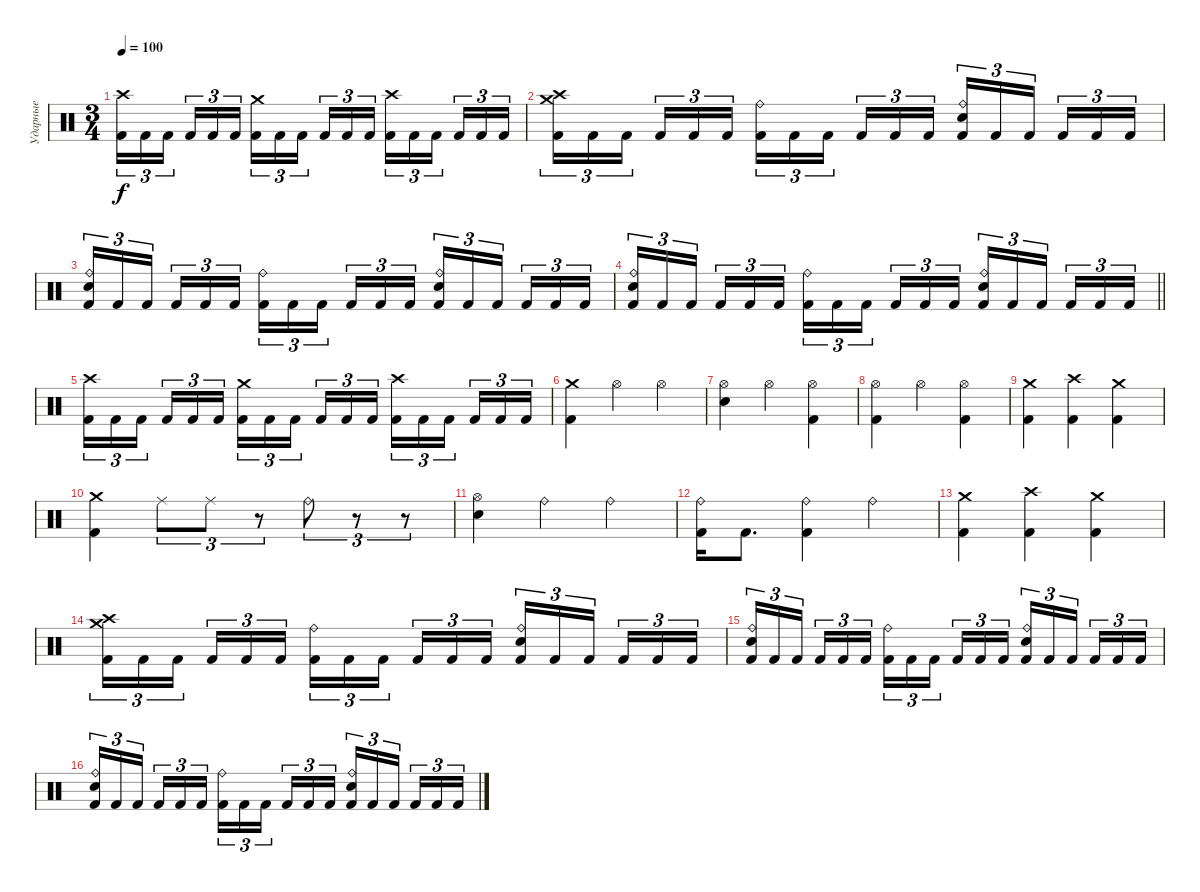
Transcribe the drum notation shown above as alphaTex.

\track ("Ударные" "Ударные") {instrument percussion}
\staff {score}
\articulation defaults
\ts (3 4)
\tempo 100
\clef neutral
\ks c
("Crash high (hit)" "Kick (hit) 2").16{tu (3 2) dy f} "Kick (hit) 2".16{tu (3 2)} "Kick (hit) 2".16{tu (3 2) beam splitsecondary} "Kick (hit) 2".16{tu (3 2)} "Kick (hit) 2".16{tu (3 2)} "Kick (hit) 2".16{tu (3 2)} ("Crash medium (hit)" "Kick (hit) 2").16{tu (3 2)} "Kick (hit) 2".16{tu (3 2)} "Kick (hit) 2".16{tu (3 2) beam splitsecondary} "Kick (hit) 2".16{tu (3 2)} "Kick (hit) 2".16{tu (3 2)} "Kick (hit) 2".16{tu (3 2)} ("Crash high (hit)" "Kick (hit) 2").16{tu (3 2)} "Kick (hit) 2".16{tu (3 2)} "Kick (hit) 2".16{tu (3 2) beam splitsecondary} "Kick (hit) 2".16{tu (3 2)} "Kick (hit) 2".16{tu (3 2)} "Kick (hit) 2".16{tu (3 2)} |
("Crash high (hit)" "Crash medium (hit)" "Kick (hit) 2").16{tu (3 2)} "Kick (hit) 2".16{tu (3 2)} "Kick (hit) 2".16{tu (3 2) beam splitsecondary} "Kick (hit) 2".16{tu (3 2)} "Kick (hit) 2".16{tu (3 2)} "Kick (hit) 2".16{tu (3 2)} ("Ride (bell)" "Kick (hit) 2").16{tu (3 2)} "Kick (hit) 2".16{tu (3 2)} "Kick (hit) 2".16{tu (3 2) beam splitsecondary} "Kick (hit) 2".16{tu (3 2)} "Kick (hit) 2".16{tu (3 2)} "Kick (hit) 2".16{tu (3 2)} ("Ride (bell)" "Electric Snare (hit)" "Kick (hit) 2").16{tu (3 2)} "Kick (hit) 2".16{tu (3 2)} "Kick (hit) 2".16{tu (3 2) beam splitsecondary} "Kick (hit) 2".16{tu (3 2)} "Kick (hit) 2".16{tu (3 2)} "Kick (hit) 2".16{tu (3 2)} |
("Ride (bell)" "Electric Snare (hit)" "Kick (hit) 2").16{tu (3 2)} "Kick (hit) 2".16{tu (3 2)} "Kick (hit) 2".16{tu (3 2) beam splitsecondary} "Kick (hit) 2".16{tu (3 2)} "Kick (hit) 2".16{tu (3 2)} "Kick (hit) 2".16{tu (3 2)} ("Ride (bell)" "Kick (hit) 2").16{tu (3 2)} "Kick (hit) 2".16{tu (3 2)} "Kick (hit) 2".16{tu (3 2) beam splitsecondary} "Kick (hit) 2".16{tu (3 2)} "Kick (hit) 2".16{tu (3 2)} "Kick (hit) 2".16{tu (3 2)} ("Ride (bell)" "Electric Snare (hit)" "Kick (hit) 2").16{tu (3 2)} "Kick (hit) 2".16{tu (3 2)} "Kick (hit) 2".16{tu (3 2) beam splitsecondary} "Kick (hit) 2".16{tu (3 2)} "Kick (hit) 2".16{tu (3 2)} "Kick (hit) 2".16{tu (3 2)} |
\barLineRight lightlight
("Ride (bell)" "Electric Snare (hit)" "Kick (hit) 2").16{tu (3 2)} "Kick (hit) 2".16{tu (3 2)} "Kick (hit) 2".16{tu (3 2) beam splitsecondary} "Kick (hit) 2".16{tu (3 2)} "Kick (hit) 2".16{tu (3 2)} "Kick (hit) 2".16{tu (3 2)} ("Ride (bell)" "Kick (hit) 2").16{tu (3 2)} "Kick (hit) 2".16{tu (3 2)} "Kick (hit) 2".16{tu (3 2) beam splitsecondary} "Kick (hit) 2".16{tu (3 2)} "Kick (hit) 2".16{tu (3 2)} "Kick (hit) 2".16{tu (3 2)} ("Ride (bell)" "Electric Snare (hit)" "Kick (hit) 2").16{tu (3 2)} "Kick (hit) 2".16{tu (3 2)} "Kick (hit) 2".16{tu (3 2) beam splitsecondary} "Kick (hit) 2".16{tu (3 2)} "Kick (hit) 2".16{tu (3 2)} "Kick (hit) 2".16{tu (3 2)} |
("Crash high (hit)" "Kick (hit) 2").16{tu (3 2)} "Kick (hit) 2".16{tu (3 2)} "Kick (hit) 2".16{tu (3 2) beam splitsecondary} "Kick (hit) 2".16{tu (3 2)} "Kick (hit) 2".16{tu (3 2)} "Kick (hit) 2".16{tu (3 2)} ("Crash medium (hit)" "Kick (hit) 2").16{tu (3 2)} "Kick (hit) 2".16{tu (3 2)} "Kick (hit) 2".16{tu (3 2) beam splitsecondary} "Kick (hit) 2".16{tu (3 2)} "Kick (hit) 2".16{tu (3 2)} "Kick (hit) 2".16{tu (3 2)} ("Crash high (hit)" "Kick (hit) 2").16{tu (3 2)} "Kick (hit) 2".16{tu (3 2)} "Kick (hit) 2".16{tu (3 2) beam splitsecondary} "Kick (hit) 2".16{tu (3 2)} "Kick (hit) 2".16{tu (3 2)} "Kick (hit) 2".16{tu (3 2)} |
("Crash medium (hit)" "Kick (hit) 2").4 "Hi-Hat (open)".4 "Hi-Hat (open)".4 |
("Hi-Hat (open)" "Electric Snare (hit)").4 "Hi-Hat (open)".4 ("Hi-Hat (open)" "Kick (hit) 2").4 |
("Hi-Hat (open)" "Kick (hit) 2").4 "Hi-Hat (open)".4 ("Hi-Hat (open)" "Kick (hit) 2").4 |
("Crash medium (hit)" "Kick (hit) 2").4 ("Crash high (hit)" "Kick (hit) 2").4 ("Crash medium (hit)" "Kick (hit) 2").4 |
("Crash medium (hit)" "Kick (hit) 2").4 "Ride (middle)".8{tu (3 2)} "Ride (middle)".8{tu (3 2)} r.8{tu (3 2)} "Ride (bell)".8{tu (3 2)} r.8{tu (3 2)} r.8{tu (3 2)} |
("Hi-Hat (open)" "Electric Snare (hit)").4 "Ride (bell)".4 "Ride (bell)".4 |
("Ride (bell)" "Kick (hit) 2").16 "Kick (hit) 2".8{d} ("Ride (bell)" "Kick (hit) 2").4 "Ride (bell)".4 |
("Crash medium (hit)" "Kick (hit) 2").4 ("Crash high (hit)" "Kick (hit) 2").4 ("Crash medium (hit)" "Kick (hit) 2").4 |
("Crash high (hit)" "Crash medium (hit)" "Kick (hit) 2").16{tu (3 2)} "Kick (hit) 2".16{tu (3 2)} "Kick (hit) 2".16{tu (3 2) beam splitsecondary} "Kick (hit) 2".16{tu (3 2)} "Kick (hit) 2".16{tu (3 2)} "Kick (hit) 2".16{tu (3 2)} ("Ride (bell)" "Kick (hit) 2").16{tu (3 2)} "Kick (hit) 2".16{tu (3 2)} "Kick (hit) 2".16{tu (3 2) beam splitsecondary} "Kick (hit) 2".16{tu (3 2)} "Kick (hit) 2".16{tu (3 2)} "Kick (hit) 2".16{tu (3 2)} ("Ride (bell)" "Electric Snare (hit)" "Kick (hit) 2").16{tu (3 2)} "Kick (hit) 2".16{tu (3 2)} "Kick (hit) 2".16{tu (3 2) beam splitsecondary} "Kick (hit) 2".16{tu (3 2)} "Kick (hit) 2".16{tu (3 2)} "Kick (hit) 2".16{tu (3 2)} |
("Ride (bell)" "Electric Snare (hit)" "Kick (hit) 2").16{tu (3 2)} "Kick (hit) 2".16{tu (3 2)} "Kick (hit) 2".16{tu (3 2) beam splitsecondary} "Kick (hit) 2".16{tu (3 2)} "Kick (hit) 2".16{tu (3 2)} "Kick (hit) 2".16{tu (3 2)} ("Ride (bell)" "Kick (hit) 2").16{tu (3 2)} "Kick (hit) 2".16{tu (3 2)} "Kick (hit) 2".16{tu (3 2) beam splitsecondary} "Kick (hit) 2".16{tu (3 2)} "Kick (hit) 2".16{tu (3 2)} "Kick (hit) 2".16{tu (3 2)} ("Ride (bell)" "Electric Snare (hit)" "Kick (hit) 2").16{tu (3 2)} "Kick (hit) 2".16{tu (3 2)} "Kick (hit) 2".16{tu (3 2) beam splitsecondary} "Kick (hit) 2".16{tu (3 2)} "Kick (hit) 2".16{tu (3 2)} "Kick (hit) 2".16{tu (3 2)} |
("Ride (bell)" "Electric Snare (hit)" "Kick (hit) 2").16{tu (3 2)} "Kick (hit) 2".16{tu (3 2)} "Kick (hit) 2".16{tu (3 2) beam splitsecondary} "Kick (hit) 2".16{tu (3 2)} "Kick (hit) 2".16{tu (3 2)} "Kick (hit) 2".16{tu (3 2)} ("Ride (bell)" "Kick (hit) 2").16{tu (3 2)} "Kick (hit) 2".16{tu (3 2)} "Kick (hit) 2".16{tu (3 2) beam splitsecondary} "Kick (hit) 2".16{tu (3 2)} "Kick (hit) 2".16{tu (3 2)} "Kick (hit) 2".16{tu (3 2)} ("Ride (bell)" "Electric Snare (hit)" "Kick (hit) 2").16{tu (3 2)} "Kick (hit) 2".16{tu (3 2)} "Kick (hit) 2".16{tu (3 2) beam splitsecondary} "Kick (hit) 2".16{tu (3 2)} "Kick (hit) 2".16{tu (3 2)} "Kick (hit) 2".16{tu (3 2)}
